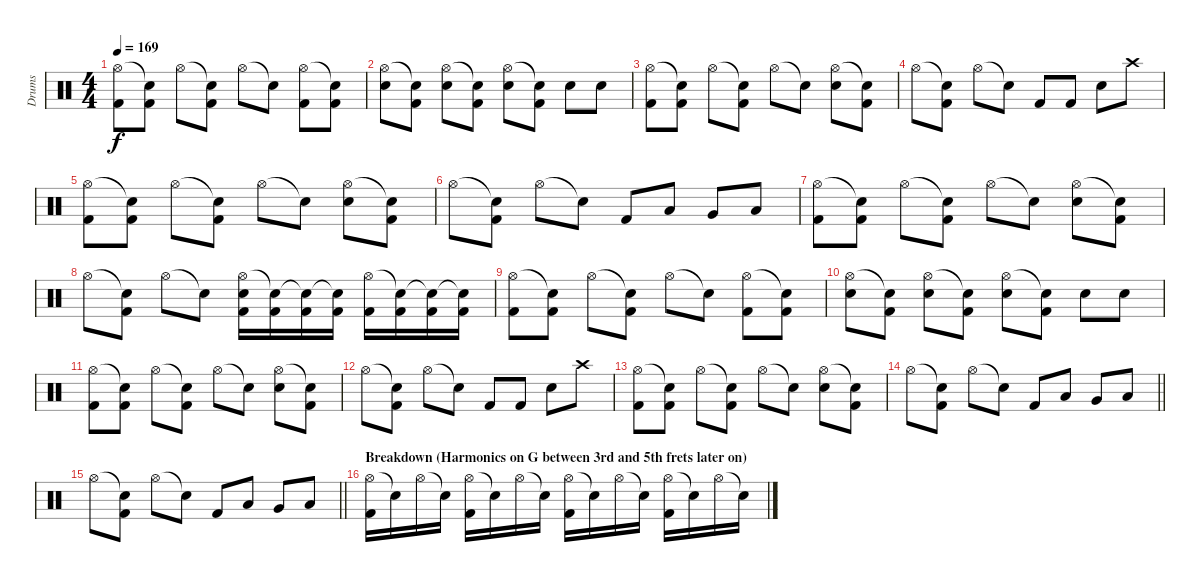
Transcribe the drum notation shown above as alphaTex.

\track ("Drums" "Drums") {instrument percussion}
\staff {score}
\articulation defaults
\ts (4 4)
\tempo 169
\clef neutral
\ks c
("Hi-Hat (open)" "Kick (hit) 2").8{dy f} ("Snare (hit)"{t} "Kick (hit) 2").8 "Hi-Hat (open)".8 ("Snare (hit)"{t} "Kick (hit) 2").8 "Hi-Hat (open)".8 "Snare (hit)"{t}.8 ("Hi-Hat (open)" "Kick (hit) 2").8 ("Snare (hit)"{t} "Kick (hit) 2").8 |
("Hi-Hat (open)" "Electric Snare (hit)").8 ("Snare (hit)"{t} "Kick (hit) 2").8 ("Hi-Hat (open)" "Electric Snare (hit)").8 ("Snare (hit)"{t} "Kick (hit) 2").8 ("Hi-Hat (open)" "Electric Snare (hit)").8 ("Snare (hit)"{t} "Kick (hit) 2").8 "Electric Snare (hit)".8 "Electric Snare (hit)".8 |
("Hi-Hat (open)" "Kick (hit) 2").8 ("Snare (hit)"{t} "Kick (hit) 2").8 "Hi-Hat (open)".8 ("Snare (hit)"{t} "Kick (hit) 2").8 "Hi-Hat (open)".8 "Snare (hit)"{t}.8 ("Hi-Hat (open)" "Electric Snare (hit)").8 ("Snare (hit)"{t} "Kick (hit) 2").8 |
"Hi-Hat (open)".8 ("Snare (hit)"{t} "Kick (hit) 2").8 "Hi-Hat (open)".8 "Snare (hit)"{t}.8 "Kick (hit) 2".8 "Kick (hit) 2".8 "Electric Snare (hit)".8 "Crash high (hit)".8 |
("Hi-Hat (open)" "Kick (hit) 2").8 ("Snare (hit)"{t} "Kick (hit) 2").8 "Hi-Hat (open)".8 ("Snare (hit)"{t} "Kick (hit) 2").8 "Hi-Hat (open)".8 "Snare (hit)"{t}.8 ("Hi-Hat (open)" "Electric Snare (hit)").8 ("Snare (hit)"{t} "Kick (hit) 2").8 |
"Hi-Hat (open)".8 ("Snare (hit)"{t} "Kick (hit) 2").8 "Hi-Hat (open)".8 "Snare (hit)"{t}.8 "Kick (hit) 2".8 "Low Tom (hit)".8 "Very Low Tom (hit)".8 "Low Floor Tom (hit)".8 |
("Hi-Hat (open)" "Kick (hit) 2").8 ("Snare (hit)"{t} "Kick (hit) 2").8 "Hi-Hat (open)".8 ("Snare (hit)"{t} "Kick (hit) 2").8 "Hi-Hat (open)".8 "Snare (hit)"{t}.8 ("Hi-Hat (open)" "Electric Snare (hit)").8 ("Snare (hit)"{t} "Kick (hit) 2").8 |
"Hi-Hat (open)".8 ("Snare (hit)"{t} "Kick (hit) 2").8 "Hi-Hat (open)".8 "Snare (hit)"{t}.8 ("Hi-Hat (open)" "Electric Snare (hit)" "Kick (hit) 2").16 ("Snare (hit)"{t} "Kick (hit) 2").16 ("Snare (hit)"{t} "Kick (hit) 2").16 ("Snare (hit)"{t} "Kick (hit) 2").16 ("Hi-Hat (open)" "Kick (hit) 2").16 ("Snare (hit)"{t} "Kick (hit) 2").16 ("Snare (hit)"{t} "Kick (hit) 2").16 ("Snare (hit)"{t} "Kick (hit) 2").16 |
("Hi-Hat (open)" "Kick (hit) 2").8 ("Snare (hit)"{t} "Kick (hit) 2").8 "Hi-Hat (open)".8 ("Snare (hit)"{t} "Kick (hit) 2").8 "Hi-Hat (open)".8 "Snare (hit)"{t}.8 ("Hi-Hat (open)" "Kick (hit) 2").8 ("Snare (hit)"{t} "Kick (hit) 2").8 |
("Hi-Hat (open)" "Electric Snare (hit)").8 ("Snare (hit)"{t} "Kick (hit) 2").8 ("Hi-Hat (open)" "Electric Snare (hit)").8 ("Snare (hit)"{t} "Kick (hit) 2").8 ("Hi-Hat (open)" "Electric Snare (hit)").8 ("Snare (hit)"{t} "Kick (hit) 2").8 "Electric Snare (hit)".8 "Electric Snare (hit)".8 |
("Hi-Hat (open)" "Kick (hit) 2").8 ("Snare (hit)"{t} "Kick (hit) 2").8 "Hi-Hat (open)".8 ("Snare (hit)"{t} "Kick (hit) 2").8 "Hi-Hat (open)".8 "Snare (hit)"{t}.8 ("Hi-Hat (open)" "Electric Snare (hit)").8 ("Snare (hit)"{t} "Kick (hit) 2").8 |
"Hi-Hat (open)".8 ("Snare (hit)"{t} "Kick (hit) 2").8 "Hi-Hat (open)".8 "Snare (hit)"{t}.8 "Kick (hit) 2".8 "Kick (hit) 2".8 "Electric Snare (hit)".8 "Crash high (hit)".8 |
("Hi-Hat (open)" "Kick (hit) 2").8 ("Snare (hit)"{t} "Kick (hit) 2").8 "Hi-Hat (open)".8 ("Snare (hit)"{t} "Kick (hit) 2").8 "Hi-Hat (open)".8 "Snare (hit)"{t}.8 ("Hi-Hat (open)" "Electric Snare (hit)").8 ("Snare (hit)"{t} "Kick (hit) 2").8 |
\barLineRight lightlight "Hi-Hat (open)".8
("Snare (hit)"{t} "Kick (hit) 2").8 "Hi-Hat (open)".8 "Snare (hit)"{t}.8 "Kick (hit) 2".8 "Low Tom (hit)".8 "Very Low Tom (hit)".8 "Low Floor Tom (hit)".8 |
\barLineRight lightlight "Hi-Hat (open)".8
("Snare (hit)"{t} "Kick (hit) 2").8 "Hi-Hat (open)".8 "Snare (hit)"{t}.8 "Kick (hit) 2".8 "Low Tom (hit)".8 "Very Low Tom (hit)".8 "Low Floor Tom (hit)".8 |
\section ("" "Breakdown (Harmonics on G between 3rd and 5th frets later on)")
("Hi-Hat (open)" "Kick (hit) 2").16 "Snare (hit)"{t}.16 "Hi-Hat (open)".16 "Snare (hit)"{t}.16 ("Hi-Hat (open)" "Kick (hit) 2").16 "Snare (hit)"{t}.16 "Hi-Hat (open)".16 "Snare (hit)"{t}.16 ("Hi-Hat (open)" "Kick (hit) 2").16 "Snare (hit)"{t}.16 "Hi-Hat (open)".16 "Snare (hit)"{t}.16 ("Hi-Hat (open)" "Kick (hit) 2").16 "Snare (hit)"{t}.16 "Hi-Hat (open)".16 "Snare (hit)"{t}.16
